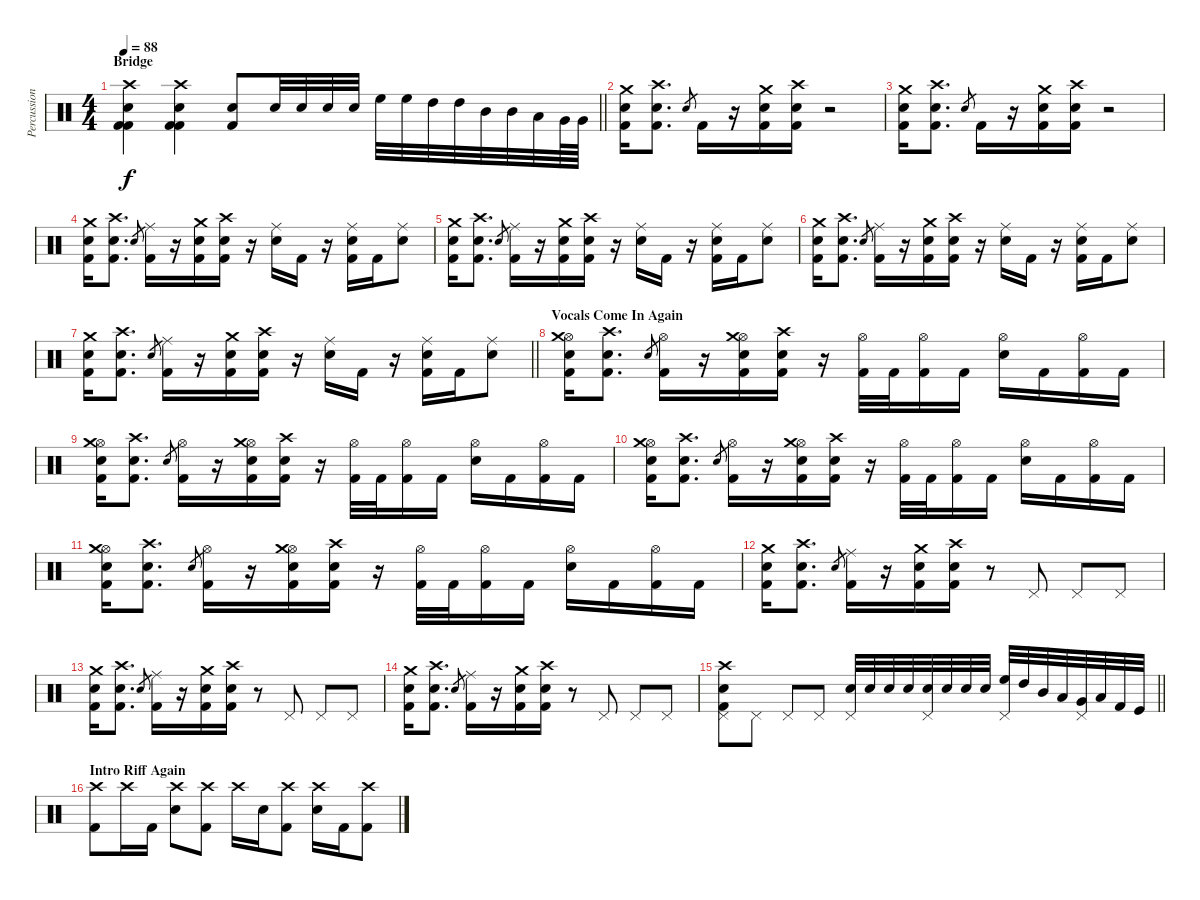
\track ("Percussion" "Percussion") {instrument percussion}
\staff {score}
\articulation defaults
\ts (4 4)
\section ("" "Bridge")
\tempo 88
\clef neutral
\barLineRight lightlight
\ks c
("Crash high (hit)" "Snare (hit) 2" "Kick (hit) 2" "Kick (hit) 2").4{dy f} ("Crash high (hit)" "Snare (hit) 2" "Kick (hit) 2" "Kick (hit) 2").4 ("Snare (hit) 2" "Kick (hit) 2").8 "Snare (hit) 2".32 "Snare (hit) 2".32 "Snare (hit) 2".32 "Snare (hit) 2".32 "High Floor Tom (hit)".32 "High Floor Tom (hit)".32 "High Tom (hit)".32 "High Tom (hit)".32 "Mid Tom (hit)".32 "Mid Tom (hit)".32 "Low Tom (hit)".32 "Very Low Tom (hit)".64 "Very Low Tom (hit)".64 |
("Crash medium (hit)" "Snare (hit) 2" "Kick (hit) 2").16 ("Crash high (hit)" "Snare (hit) 2" "Kick (hit) 2").8{d} "Snare (hit) 2".8{gr} "Kick (hit) 2".16 r.16 ("Crash medium (hit)" "Snare (hit) 2" "Kick (hit) 2").16 ("Crash high (hit)" "Snare (hit) 2" "Kick (hit) 2").16 r.2 |
("Crash medium (hit)" "Snare (hit) 2" "Kick (hit) 2").16 ("Crash high (hit)" "Snare (hit) 2" "Kick (hit) 2").8{d} "Snare (hit) 2".8{gr} "Kick (hit) 2".16 r.16 ("Crash medium (hit)" "Snare (hit) 2" "Kick (hit) 2").16 ("Crash high (hit)" "Snare (hit) 2" "Kick (hit) 2").16 r.2 |
("Crash medium (hit)" "Snare (hit) 2" "Kick (hit) 2").16 ("Crash high (hit)" "Snare (hit) 2" "Kick (hit) 2").8{d} "Snare (hit) 2".8{gr} ("Ride (middle)" "Kick (hit) 2").16 r.16 ("Crash medium (hit)" "Snare (hit) 2" "Kick (hit) 2").16 ("Crash high (hit)" "Snare (hit) 2" "Kick (hit) 2").16 r.16 ("Ride (middle)" "Snare (hit) 2").16 "Kick (hit) 2".16 r.16 ("Ride (middle)" "Snare (hit) 2" "Kick (hit) 2").16 "Kick (hit) 2".16 ("Ride (middle)" "Snare (hit) 2").8 |
("Crash medium (hit)" "Snare (hit) 2" "Kick (hit) 2").16 ("Crash high (hit)" "Snare (hit) 2" "Kick (hit) 2").8{d} "Snare (hit) 2".8{gr} ("Ride (middle)" "Kick (hit) 2").16 r.16 ("Crash medium (hit)" "Snare (hit) 2" "Kick (hit) 2").16 ("Crash high (hit)" "Snare (hit) 2" "Kick (hit) 2").16 r.16 ("Ride (middle)" "Snare (hit) 2").16 "Kick (hit) 2".16 r.16 ("Ride (middle)" "Snare (hit) 2" "Kick (hit) 2").16 "Kick (hit) 2".16 ("Ride (middle)" "Snare (hit) 2").8 |
("Crash medium (hit)" "Snare (hit) 2" "Kick (hit) 2").16 ("Crash high (hit)" "Snare (hit) 2" "Kick (hit) 2").8{d} "Snare (hit) 2".8{gr} ("Ride (middle)" "Kick (hit) 2").16 r.16 ("Crash medium (hit)" "Snare (hit) 2" "Kick (hit) 2").16 ("Crash high (hit)" "Snare (hit) 2" "Kick (hit) 2").16 r.16 ("Ride (middle)" "Snare (hit) 2").16 "Kick (hit) 2".16 r.16 ("Ride (middle)" "Snare (hit) 2" "Kick (hit) 2").16 "Kick (hit) 2".16 ("Ride (middle)" "Snare (hit) 2").8 |
\barLineRight lightlight
("Crash medium (hit)" "Snare (hit) 2" "Kick (hit) 2").16 ("Crash high (hit)" "Snare (hit) 2" "Kick (hit) 2").8{d} "Snare (hit) 2".8{gr} ("Ride (middle)" "Kick (hit) 2").16 r.16 ("Crash medium (hit)" "Snare (hit) 2" "Kick (hit) 2").16 ("Crash high (hit)" "Snare (hit) 2" "Kick (hit) 2").16 r.16 ("Ride (middle)" "Snare (hit) 2").16 "Kick (hit) 2".16 r.16 ("Ride (middle)" "Snare (hit) 2" "Kick (hit) 2").16 "Kick (hit) 2".16 ("Ride (middle)" "Snare (hit) 2").8 |
\section ("" "Vocals Come In Again")
("Hi-Hat (open)" "Crash medium (hit)" "Snare (hit) 2" "Kick (hit) 2").16 ("Crash high (hit)" "Snare (hit) 2" "Kick (hit) 2").8{d} "Snare (hit) 2".8{gr} ("Hi-Hat (open)" "Kick (hit) 2").16 r.16 ("Hi-Hat (open)" "Crash medium (hit)" "Snare (hit) 2" "Kick (hit) 2").16 ("Crash high (hit)" "Snare (hit) 2" "Kick (hit) 2").16 r.16 ("Hi-Hat (open)" "Kick (hit) 2").32 "Kick (hit) 2".32 ("Hi-Hat (open)" "Kick (hit) 2").16 "Kick (hit) 2".16 ("Hi-Hat (open)" "Snare (hit) 2").16 "Kick (hit) 2".16 ("Hi-Hat (open)" "Kick (hit) 2").16 "Kick (hit) 2".16 |
("Hi-Hat (open)" "Crash medium (hit)" "Snare (hit) 2" "Kick (hit) 2").16 ("Crash high (hit)" "Snare (hit) 2" "Kick (hit) 2").8{d} "Snare (hit) 2".8{gr} ("Hi-Hat (open)" "Kick (hit) 2").16 r.16 ("Hi-Hat (open)" "Crash medium (hit)" "Snare (hit) 2" "Kick (hit) 2").16 ("Crash high (hit)" "Snare (hit) 2" "Kick (hit) 2").16 r.16 ("Hi-Hat (open)" "Kick (hit) 2").32 "Kick (hit) 2".32 ("Hi-Hat (open)" "Kick (hit) 2").16 "Kick (hit) 2".16 ("Hi-Hat (open)" "Snare (hit) 2").16 "Kick (hit) 2".16 ("Hi-Hat (open)" "Kick (hit) 2").16 "Kick (hit) 2".16 |
("Hi-Hat (open)" "Crash medium (hit)" "Snare (hit) 2" "Kick (hit) 2").16 ("Crash high (hit)" "Snare (hit) 2" "Kick (hit) 2").8{d} "Snare (hit) 2".8{gr} ("Hi-Hat (open)" "Kick (hit) 2").16 r.16 ("Hi-Hat (open)" "Crash medium (hit)" "Snare (hit) 2" "Kick (hit) 2").16 ("Crash high (hit)" "Snare (hit) 2" "Kick (hit) 2").16 r.16 ("Hi-Hat (open)" "Kick (hit) 2").32 "Kick (hit) 2".32 ("Hi-Hat (open)" "Kick (hit) 2").16 "Kick (hit) 2".16 ("Hi-Hat (open)" "Snare (hit) 2").16 "Kick (hit) 2".16 ("Hi-Hat (open)" "Kick (hit) 2").16 "Kick (hit) 2".16 |
("Hi-Hat (open)" "Crash medium (hit)" "Snare (hit) 2" "Kick (hit) 2").16 ("Crash high (hit)" "Snare (hit) 2" "Kick (hit) 2").8{d} "Snare (hit) 2".8{gr} ("Hi-Hat (open)" "Kick (hit) 2").16 r.16 ("Hi-Hat (open)" "Crash medium (hit)" "Snare (hit) 2" "Kick (hit) 2").16 ("Crash high (hit)" "Snare (hit) 2" "Kick (hit) 2").16 r.16 ("Hi-Hat (open)" "Kick (hit) 2").32 "Kick (hit) 2".32 ("Hi-Hat (open)" "Kick (hit) 2").16 "Kick (hit) 2".16 ("Hi-Hat (open)" "Snare (hit) 2").16 "Kick (hit) 2".16 ("Hi-Hat (open)" "Kick (hit) 2").16 "Kick (hit) 2".16 |
("Crash medium (hit)" "Snare (hit) 2" "Kick (hit) 2").16 ("Crash high (hit)" "Snare (hit) 2" "Kick (hit) 2").8{d} "Snare (hit) 2".8{gr} ("Ride (middle)" "Kick (hit) 2").16 r.16 ("Crash medium (hit)" "Snare (hit) 2" "Kick (hit) 2").16 ("Crash high (hit)" "Snare (hit) 2" "Kick (hit) 2").16 r.8 "Pedal Hi-Hat (hit)".8 "Pedal Hi-Hat (hit)".8 "Pedal Hi-Hat (hit)".8 |
("Crash medium (hit)" "Snare (hit) 2" "Kick (hit) 2").16 ("Crash high (hit)" "Snare (hit) 2" "Kick (hit) 2").8{d} "Snare (hit) 2".8{gr} ("Ride (middle)" "Kick (hit) 2").16 r.16 ("Crash medium (hit)" "Snare (hit) 2" "Kick (hit) 2").16 ("Crash high (hit)" "Snare (hit) 2" "Kick (hit) 2").16 r.8 "Pedal Hi-Hat (hit)".8 "Pedal Hi-Hat (hit)".8 "Pedal Hi-Hat (hit)".8 |
("Crash medium (hit)" "Snare (hit) 2" "Kick (hit) 2").16 ("Crash high (hit)" "Snare (hit) 2" "Kick (hit) 2").8{d} "Snare (hit) 2".8{gr} ("Ride (middle)" "Kick (hit) 2").16 r.16 ("Crash medium (hit)" "Snare (hit) 2" "Kick (hit) 2").16 ("Crash high (hit)" "Snare (hit) 2" "Kick (hit) 2").16 r.8 "Pedal Hi-Hat (hit)".8 "Pedal Hi-Hat (hit)".8 "Pedal Hi-Hat (hit)".8 |
\barLineRight lightlight
("Crash high (hit)" "Pedal Hi-Hat (hit)" "Snare (hit) 2" "Kick (hit) 2").8 "Pedal Hi-Hat (hit)".8 "Pedal Hi-Hat (hit)".8 "Pedal Hi-Hat (hit)".8 ("Pedal Hi-Hat (hit)" "Electric Snare (hit)").32 "Electric Snare (hit)".32 "Electric Snare (hit)".32 "Snare (hit) 2".32 ("Pedal Hi-Hat (hit)" "Electric Snare (hit)").32 "Snare (hit) 2".32 "Snare (hit) 2".32 "Snare (hit) 2".32 ("Pedal Hi-Hat (hit)" "High Floor Tom (hit)").32 "High Tom (hit)".32 "Mid Tom (hit)".32 "Low Tom (hit)".32 ("Pedal Hi-Hat (hit)" "Very Low Tom (hit)").32 "Low Floor Tom (hit)".32 "Kick (hit) 2".32 "Kick (hit)".32 |
\section ("" "Intro Riff Again")
("Crash high (hit)" "Kick (hit) 2").8 "Crash high (hit)".16 "Kick (hit) 2".16 ("Crash high (hit)" "Snare (hit) 2").8 ("Crash high (hit)" "Kick (hit) 2").8 "Crash high (hit)".16 "Snare (hit) 2".16 ("Crash high (hit)" "Kick (hit) 2").8 ("Crash high (hit)" "Snare (hit) 2").16 "Kick (hit) 2".16 ("Crash high (hit)" "Kick (hit) 2").8
